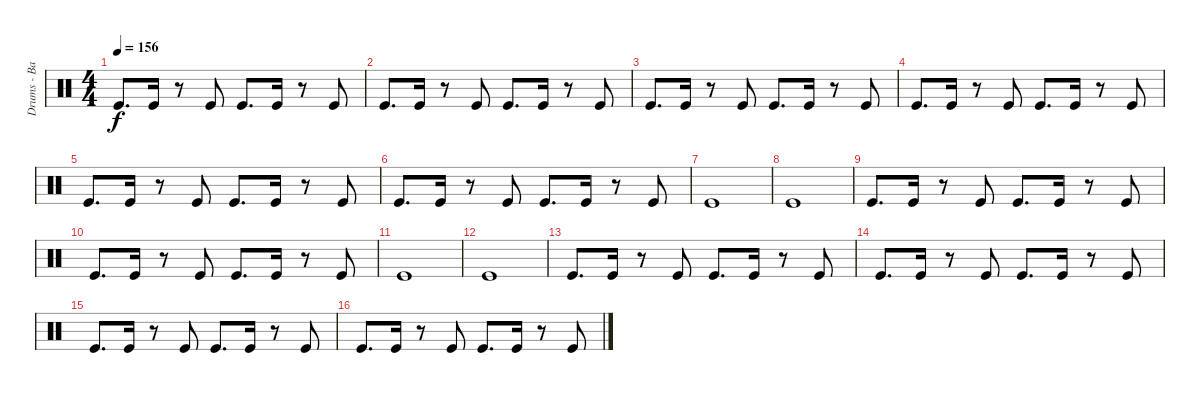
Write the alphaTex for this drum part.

\track ("Drums - Bass Drums" "Drums - Ba") {instrument percussion}
\staff {score}
\articulation defaults
\ts (4 4)
\tempo 156
\clef neutral
\ks c "Kick (hit)".8{d dy f} "Kick (hit)".16
r.8 "Kick (hit)".8 "Kick (hit)".8{d} "Kick (hit)".16 r.8 "Kick (hit)".8 |
"Kick (hit)".8{d} "Kick (hit)".16 r.8 "Kick (hit)".8 "Kick (hit)".8{d} "Kick (hit)".16 r.8 "Kick (hit)".8 |
"Kick (hit)".8{d} "Kick (hit)".16 r.8 "Kick (hit)".8 "Kick (hit)".8{d} "Kick (hit)".16 r.8 "Kick (hit)".8 |
"Kick (hit)".8{d} "Kick (hit)".16 r.8 "Kick (hit)".8 "Kick (hit)".8{d} "Kick (hit)".16 r.8 "Kick (hit)".8 |
"Kick (hit)".8{d} "Kick (hit)".16 r.8 "Kick (hit)".8 "Kick (hit)".8{d} "Kick (hit)".16 r.8 "Kick (hit)".8 |
"Kick (hit)".8{d} "Kick (hit)".16 r.8 "Kick (hit)".8 "Kick (hit)".8{d} "Kick (hit)".16 r.8 "Kick (hit)".8 |
"Kick (hit)".1 |
"Kick (hit)".1 |
"Kick (hit)".8{d} "Kick (hit)".16 r.8 "Kick (hit)".8 "Kick (hit)".8{d} "Kick (hit)".16 r.8 "Kick (hit)".8 |
"Kick (hit)".8{d} "Kick (hit)".16 r.8 "Kick (hit)".8 "Kick (hit)".8{d} "Kick (hit)".16 r.8 "Kick (hit)".8 |
"Kick (hit)".1 |
"Kick (hit)".1 |
"Kick (hit)".8{d} "Kick (hit)".16 r.8 "Kick (hit)".8 "Kick (hit)".8{d} "Kick (hit)".16 r.8 "Kick (hit)".8 |
"Kick (hit)".8{d} "Kick (hit)".16 r.8 "Kick (hit)".8 "Kick (hit)".8{d} "Kick (hit)".16 r.8 "Kick (hit)".8 |
"Kick (hit)".8{d} "Kick (hit)".16 r.8 "Kick (hit)".8 "Kick (hit)".8{d} "Kick (hit)".16 r.8 "Kick (hit)".8 |
"Kick (hit)".8{d} "Kick (hit)".16 r.8 "Kick (hit)".8 "Kick (hit)".8{d} "Kick (hit)".16 r.8 "Kick (hit)".8
